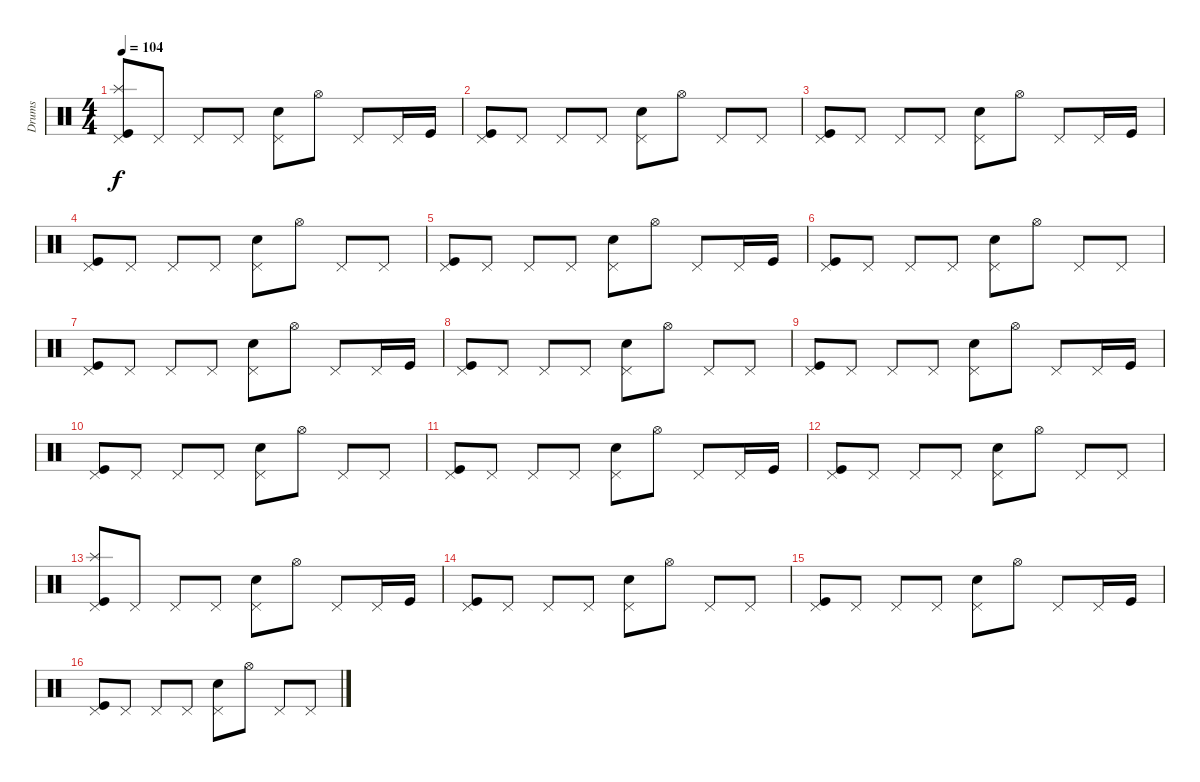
\track ("Drums" "Drums") {instrument percussion}
\staff {score}
\articulation defaults
\ts (4 4)
\tempo 104
\clef neutral
\ks c
("Pedal Hi-Hat (hit)" "Splash (hit)" "Kick (hit)").8{dy f} "Pedal Hi-Hat (hit)".8 "Pedal Hi-Hat (hit)".8 "Pedal Hi-Hat (hit)".8 ("Pedal Hi-Hat (hit)" "Snare (hit) 2").8 "Hi-Hat (open)".8 "Pedal Hi-Hat (hit)".8 "Pedal Hi-Hat (hit)".16 "Kick (hit)".16 |
("Pedal Hi-Hat (hit)" "Kick (hit)").8 "Pedal Hi-Hat (hit)".8 "Pedal Hi-Hat (hit)".8 "Pedal Hi-Hat (hit)".8 ("Pedal Hi-Hat (hit)" "Snare (hit) 2").8 "Hi-Hat (open)".8 "Pedal Hi-Hat (hit)".8 "Pedal Hi-Hat (hit)".8 |
("Pedal Hi-Hat (hit)" "Kick (hit)").8 "Pedal Hi-Hat (hit)".8 "Pedal Hi-Hat (hit)".8 "Pedal Hi-Hat (hit)".8 ("Pedal Hi-Hat (hit)" "Snare (hit) 2").8 "Hi-Hat (open)".8 "Pedal Hi-Hat (hit)".8 "Pedal Hi-Hat (hit)".16 "Kick (hit)".16 |
("Pedal Hi-Hat (hit)" "Kick (hit)").8 "Pedal Hi-Hat (hit)".8 "Pedal Hi-Hat (hit)".8 "Pedal Hi-Hat (hit)".8 ("Pedal Hi-Hat (hit)" "Snare (hit) 2").8 "Hi-Hat (open)".8 "Pedal Hi-Hat (hit)".8 "Pedal Hi-Hat (hit)".8 |
("Pedal Hi-Hat (hit)" "Kick (hit)").8 "Pedal Hi-Hat (hit)".8 "Pedal Hi-Hat (hit)".8 "Pedal Hi-Hat (hit)".8 ("Pedal Hi-Hat (hit)" "Snare (hit) 2").8 "Hi-Hat (open)".8 "Pedal Hi-Hat (hit)".8 "Pedal Hi-Hat (hit)".16 "Kick (hit)".16 |
("Pedal Hi-Hat (hit)" "Kick (hit)").8 "Pedal Hi-Hat (hit)".8 "Pedal Hi-Hat (hit)".8 "Pedal Hi-Hat (hit)".8 ("Pedal Hi-Hat (hit)" "Snare (hit) 2").8 "Hi-Hat (open)".8 "Pedal Hi-Hat (hit)".8 "Pedal Hi-Hat (hit)".8 |
("Pedal Hi-Hat (hit)" "Kick (hit)").8 "Pedal Hi-Hat (hit)".8 "Pedal Hi-Hat (hit)".8 "Pedal Hi-Hat (hit)".8 ("Pedal Hi-Hat (hit)" "Snare (hit) 2").8 "Hi-Hat (open)".8 "Pedal Hi-Hat (hit)".8 "Pedal Hi-Hat (hit)".16 "Kick (hit)".16 |
("Pedal Hi-Hat (hit)" "Kick (hit)").8 "Pedal Hi-Hat (hit)".8 "Pedal Hi-Hat (hit)".8 "Pedal Hi-Hat (hit)".8 ("Pedal Hi-Hat (hit)" "Snare (hit) 2").8 "Hi-Hat (open)".8 "Pedal Hi-Hat (hit)".8 "Pedal Hi-Hat (hit)".8 |
("Pedal Hi-Hat (hit)" "Kick (hit)").8 "Pedal Hi-Hat (hit)".8 "Pedal Hi-Hat (hit)".8 "Pedal Hi-Hat (hit)".8 ("Pedal Hi-Hat (hit)" "Snare (hit) 2").8 "Hi-Hat (open)".8 "Pedal Hi-Hat (hit)".8 "Pedal Hi-Hat (hit)".16 "Kick (hit)".16 |
("Pedal Hi-Hat (hit)" "Kick (hit)").8 "Pedal Hi-Hat (hit)".8 "Pedal Hi-Hat (hit)".8 "Pedal Hi-Hat (hit)".8 ("Pedal Hi-Hat (hit)" "Snare (hit) 2").8 "Hi-Hat (open)".8 "Pedal Hi-Hat (hit)".8 "Pedal Hi-Hat (hit)".8 |
("Pedal Hi-Hat (hit)" "Kick (hit)").8 "Pedal Hi-Hat (hit)".8 "Pedal Hi-Hat (hit)".8 "Pedal Hi-Hat (hit)".8 ("Pedal Hi-Hat (hit)" "Snare (hit) 2").8 "Hi-Hat (open)".8 "Pedal Hi-Hat (hit)".8 "Pedal Hi-Hat (hit)".16 "Kick (hit)".16 |
("Pedal Hi-Hat (hit)" "Kick (hit)").8 "Pedal Hi-Hat (hit)".8 "Pedal Hi-Hat (hit)".8 "Pedal Hi-Hat (hit)".8 ("Pedal Hi-Hat (hit)" "Snare (hit) 2").8 "Hi-Hat (open)".8 "Pedal Hi-Hat (hit)".8 "Pedal Hi-Hat (hit)".8 |
("Pedal Hi-Hat (hit)" "Splash (hit)" "Kick (hit)").8 "Pedal Hi-Hat (hit)".8 "Pedal Hi-Hat (hit)".8 "Pedal Hi-Hat (hit)".8 ("Pedal Hi-Hat (hit)" "Snare (hit) 2").8 "Hi-Hat (open)".8 "Pedal Hi-Hat (hit)".8 "Pedal Hi-Hat (hit)".16 "Kick (hit)".16 |
("Pedal Hi-Hat (hit)" "Kick (hit)").8 "Pedal Hi-Hat (hit)".8 "Pedal Hi-Hat (hit)".8 "Pedal Hi-Hat (hit)".8 ("Pedal Hi-Hat (hit)" "Snare (hit) 2").8 "Hi-Hat (open)".8 "Pedal Hi-Hat (hit)".8 "Pedal Hi-Hat (hit)".8 |
("Pedal Hi-Hat (hit)" "Kick (hit)").8 "Pedal Hi-Hat (hit)".8 "Pedal Hi-Hat (hit)".8 "Pedal Hi-Hat (hit)".8 ("Pedal Hi-Hat (hit)" "Snare (hit) 2").8 "Hi-Hat (open)".8 "Pedal Hi-Hat (hit)".8 "Pedal Hi-Hat (hit)".16 "Kick (hit)".16 |
("Pedal Hi-Hat (hit)" "Kick (hit)").8 "Pedal Hi-Hat (hit)".8 "Pedal Hi-Hat (hit)".8 "Pedal Hi-Hat (hit)".8 ("Pedal Hi-Hat (hit)" "Snare (hit) 2").8 "Hi-Hat (open)".8 "Pedal Hi-Hat (hit)".8 "Pedal Hi-Hat (hit)".8
